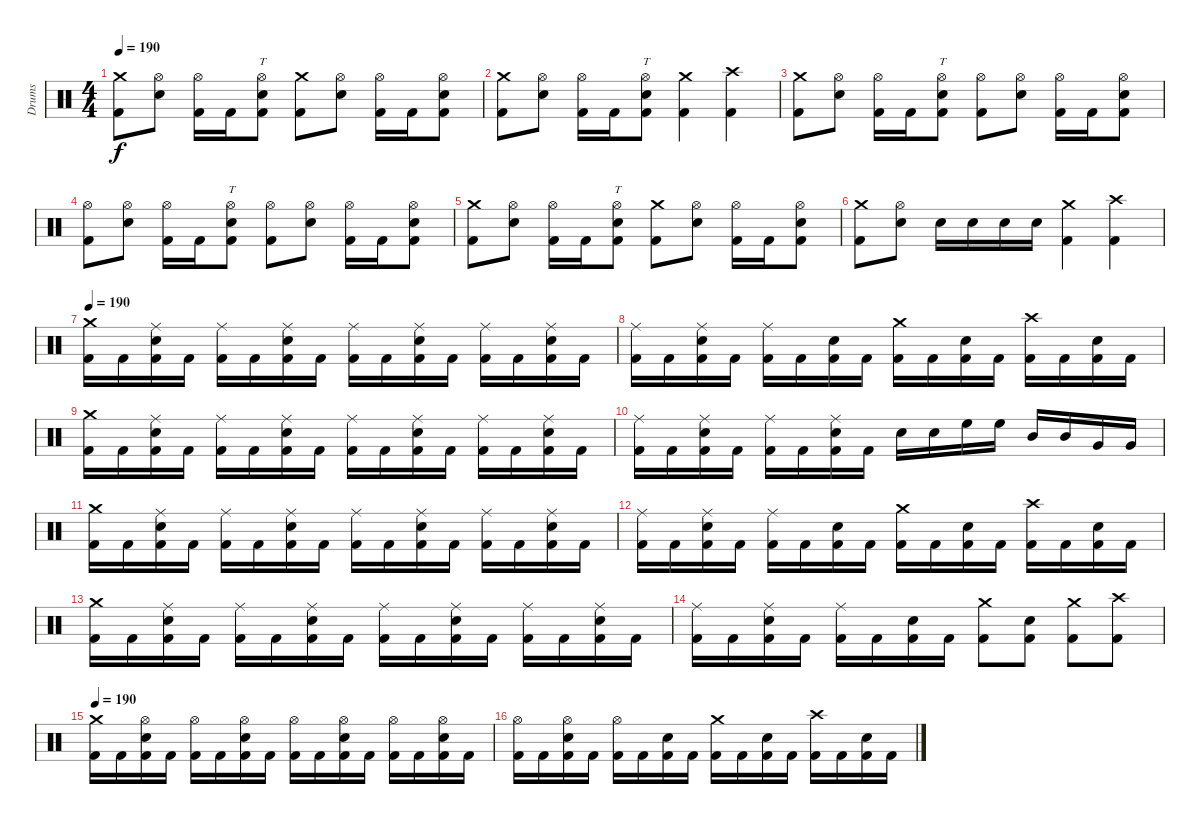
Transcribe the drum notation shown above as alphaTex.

\track ("Drums" "Drums") {instrument percussion}
\staff {score}
\articulation defaults
\ts (4 4)
\tempo 190
\clef neutral
\ks c
("Crash medium (hit)" "Kick (hit) 2").8{dy f} ("Hi-Hat (open)" "Electric Snare (hit)").8 ("Hi-Hat (open)" "Kick (hit) 2").16 "Kick (hit) 2".16 ("Hi-Hat (open)" "Electric Snare (hit)" "Kick (hit) 2").8{tt} ("Crash medium (hit)" "Kick (hit) 2").8 ("Hi-Hat (open)" "Electric Snare (hit)").8 ("Hi-Hat (open)" "Kick (hit) 2").16 "Kick (hit) 2".16 ("Hi-Hat (open)" "Electric Snare (hit)" "Kick (hit) 2").8 |
("Crash medium (hit)" "Kick (hit) 2").8 ("Hi-Hat (open)" "Electric Snare (hit)").8 ("Hi-Hat (open)" "Kick (hit) 2").16 "Kick (hit) 2".16 ("Hi-Hat (open)" "Electric Snare (hit)" "Kick (hit) 2").8{tt} ("Crash medium (hit)" "Kick (hit) 2").4 ("Crash high (hit)" "Kick (hit) 2").4 |
("Crash medium (hit)" "Kick (hit) 2").8 ("Hi-Hat (open)" "Electric Snare (hit)").8 ("Hi-Hat (open)" "Kick (hit) 2").16 "Kick (hit) 2".16 ("Hi-Hat (open)" "Electric Snare (hit)" "Kick (hit) 2").8{tt} ("Hi-Hat (open)" "Kick (hit) 2").8 ("Hi-Hat (open)" "Electric Snare (hit)").8 ("Hi-Hat (open)" "Kick (hit) 2").16 "Kick (hit) 2".16 ("Hi-Hat (open)" "Electric Snare (hit)" "Kick (hit) 2").8 |
("Hi-Hat (open)" "Kick (hit) 2").8 ("Hi-Hat (open)" "Electric Snare (hit)").8 ("Hi-Hat (open)" "Kick (hit) 2").16 "Kick (hit) 2".16 ("Hi-Hat (open)" "Electric Snare (hit)" "Kick (hit) 2").8{tt} ("Hi-Hat (open)" "Kick (hit) 2").8 ("Hi-Hat (open)" "Electric Snare (hit)").8 ("Hi-Hat (open)" "Kick (hit) 2").16 "Kick (hit) 2".16 ("Hi-Hat (open)" "Electric Snare (hit)" "Kick (hit) 2").8 |
("Crash medium (hit)" "Kick (hit) 2").8 ("Hi-Hat (open)" "Electric Snare (hit)").8 ("Hi-Hat (open)" "Kick (hit) 2").16 "Kick (hit) 2".16 ("Hi-Hat (open)" "Electric Snare (hit)" "Kick (hit) 2").8{tt} ("Crash medium (hit)" "Kick (hit) 2").8 ("Hi-Hat (open)" "Electric Snare (hit)").8 ("Hi-Hat (open)" "Kick (hit) 2").16 "Kick (hit) 2".16 ("Hi-Hat (open)" "Electric Snare (hit)" "Kick (hit) 2").8 |
("Crash medium (hit)" "Kick (hit) 2").8 ("Hi-Hat (open)" "Electric Snare (hit)").8 "Electric Snare (hit)".16 "Electric Snare (hit)".16 "Electric Snare (hit)".16 "Electric Snare (hit)".16 ("Crash medium (hit)" "Kick (hit) 2").4 ("Crash high (hit)" "Kick (hit) 2").4 |
\tempo 190
("Crash medium (hit)" "Kick (hit) 2").16 "Kick (hit) 2".16 ("Ride (middle)" "Electric Snare (hit)" "Kick (hit) 2").16 "Kick (hit) 2".16 ("Ride (middle)" "Kick (hit) 2").16 "Kick (hit) 2".16 ("Ride (middle)" "Electric Snare (hit)" "Kick (hit) 2").16 "Kick (hit) 2".16 ("Ride (middle)" "Kick (hit) 2").16 "Kick (hit) 2".16 ("Ride (middle)" "Electric Snare (hit)" "Kick (hit) 2").16 "Kick (hit) 2".16 ("Ride (middle)" "Kick (hit) 2").16 "Kick (hit) 2".16 ("Ride (middle)" "Electric Snare (hit)" "Kick (hit) 2").16 "Kick (hit) 2".16 |
("Ride (middle)" "Kick (hit) 2").16 "Kick (hit) 2".16 ("Ride (middle)" "Electric Snare (hit)" "Kick (hit) 2").16 "Kick (hit) 2".16 ("Ride (middle)" "Kick (hit) 2").16 "Kick (hit) 2".16 ("Electric Snare (hit)" "Kick (hit) 2").16 "Kick (hit) 2".16 ("Crash medium (hit)" "Kick (hit) 2").16 "Kick (hit) 2".16 ("Electric Snare (hit)" "Kick (hit) 2").16 "Kick (hit) 2".16 ("Crash high (hit)" "Kick (hit) 2").16 "Kick (hit) 2".16 ("Electric Snare (hit)" "Kick (hit) 2").16 "Kick (hit) 2".16 |
("Crash medium (hit)" "Kick (hit) 2").16 "Kick (hit) 2".16 ("Ride (middle)" "Electric Snare (hit)" "Kick (hit) 2").16 "Kick (hit) 2".16 ("Ride (middle)" "Kick (hit) 2").16 "Kick (hit) 2".16 ("Ride (middle)" "Electric Snare (hit)" "Kick (hit) 2").16 "Kick (hit) 2".16 ("Ride (middle)" "Kick (hit) 2").16 "Kick (hit) 2".16 ("Ride (middle)" "Electric Snare (hit)" "Kick (hit) 2").16 "Kick (hit) 2".16 ("Ride (middle)" "Kick (hit) 2").16 "Kick (hit) 2".16 ("Ride (middle)" "Electric Snare (hit)" "Kick (hit) 2").16 "Kick (hit) 2".16 |
("Ride (middle)" "Kick (hit) 2").16 "Kick (hit) 2".16 ("Ride (middle)" "Electric Snare (hit)" "Kick (hit) 2").16 "Kick (hit) 2".16 ("Ride (middle)" "Kick (hit) 2").16 "Kick (hit) 2".16 ("Ride (middle)" "Electric Snare (hit)" "Kick (hit) 2").16 "Kick (hit) 2".16 "Electric Snare (hit)".16 "Electric Snare (hit)".16 "High Floor Tom (hit)".16 "High Floor Tom (hit)".16 "Mid Tom (hit)".16 "Mid Tom (hit)".16 "Very Low Tom (hit)".16 "Very Low Tom (hit)".16 |
("Crash medium (hit)" "Kick (hit) 2").16 "Kick (hit) 2".16 ("Ride (middle)" "Electric Snare (hit)" "Kick (hit) 2").16 "Kick (hit) 2".16 ("Ride (middle)" "Kick (hit) 2").16 "Kick (hit) 2".16 ("Ride (middle)" "Electric Snare (hit)" "Kick (hit) 2").16 "Kick (hit) 2".16 ("Ride (middle)" "Kick (hit) 2").16 "Kick (hit) 2".16 ("Ride (middle)" "Electric Snare (hit)" "Kick (hit) 2").16 "Kick (hit) 2".16 ("Ride (middle)" "Kick (hit) 2").16 "Kick (hit) 2".16 ("Ride (middle)" "Electric Snare (hit)" "Kick (hit) 2").16 "Kick (hit) 2".16 |
("Ride (middle)" "Kick (hit) 2").16 "Kick (hit) 2".16 ("Ride (middle)" "Electric Snare (hit)" "Kick (hit) 2").16 "Kick (hit) 2".16 ("Ride (middle)" "Kick (hit) 2").16 "Kick (hit) 2".16 ("Electric Snare (hit)" "Kick (hit) 2").16 "Kick (hit) 2".16 ("Crash medium (hit)" "Kick (hit) 2").16 "Kick (hit) 2".16 ("Electric Snare (hit)" "Kick (hit) 2").16 "Kick (hit) 2".16 ("Crash high (hit)" "Kick (hit) 2").16 "Kick (hit) 2".16 ("Electric Snare (hit)" "Kick (hit) 2").16 "Kick (hit) 2".16 |
("Crash medium (hit)" "Kick (hit) 2").16 "Kick (hit) 2".16 ("Ride (middle)" "Electric Snare (hit)" "Kick (hit) 2").16 "Kick (hit) 2".16 ("Ride (middle)" "Kick (hit) 2").16 "Kick (hit) 2".16 ("Ride (middle)" "Electric Snare (hit)" "Kick (hit) 2").16 "Kick (hit) 2".16 ("Ride (middle)" "Kick (hit) 2").16 "Kick (hit) 2".16 ("Ride (middle)" "Electric Snare (hit)" "Kick (hit) 2").16 "Kick (hit) 2".16 ("Ride (middle)" "Kick (hit) 2").16 "Kick (hit) 2".16 ("Ride (middle)" "Electric Snare (hit)" "Kick (hit) 2").16 "Kick (hit) 2".16 |
("Ride (middle)" "Kick (hit) 2").16 "Kick (hit) 2".16 ("Ride (middle)" "Electric Snare (hit)" "Kick (hit) 2").16 "Kick (hit) 2".16 ("Ride (middle)" "Kick (hit) 2").16 "Kick (hit) 2".16 ("Electric Snare (hit)" "Kick (hit) 2").16 "Kick (hit) 2".16 ("Crash medium (hit)" "Kick (hit) 2").8 ("Electric Snare (hit)" "Kick (hit) 2").8 ("Crash medium (hit)" "Kick (hit) 2").8 ("Crash high (hit)" "Kick (hit) 2").8 |
\tempo 190
("Crash medium (hit)" "Kick (hit) 2").16 "Kick (hit) 2".16 ("Hi-Hat (open)" "Electric Snare (hit)" "Kick (hit) 2").16 "Kick (hit) 2".16 ("Hi-Hat (open)" "Kick (hit) 2").16 "Kick (hit) 2".16 ("Hi-Hat (open)" "Electric Snare (hit)" "Kick (hit) 2").16 "Kick (hit) 2".16 ("Hi-Hat (open)" "Kick (hit) 2").16 "Kick (hit) 2".16 ("Hi-Hat (open)" "Electric Snare (hit)" "Kick (hit) 2").16 "Kick (hit) 2".16 ("Hi-Hat (open)" "Kick (hit) 2").16 "Kick (hit) 2".16 ("Hi-Hat (open)" "Electric Snare (hit)" "Kick (hit) 2").16 "Kick (hit) 2".16 |
("Hi-Hat (open)" "Kick (hit) 2").16 "Kick (hit) 2".16 ("Hi-Hat (open)" "Electric Snare (hit)" "Kick (hit) 2").16 "Kick (hit) 2".16 ("Hi-Hat (open)" "Kick (hit) 2").16 "Kick (hit) 2".16 ("Electric Snare (hit)" "Kick (hit) 2").16 "Kick (hit) 2".16 ("Crash medium (hit)" "Kick (hit) 2").16 "Kick (hit) 2".16 ("Electric Snare (hit)" "Kick (hit) 2").16 "Kick (hit) 2".16 ("Crash high (hit)" "Kick (hit) 2").16 "Kick (hit) 2".16 ("Electric Snare (hit)" "Kick (hit) 2").16 "Kick (hit) 2".16
